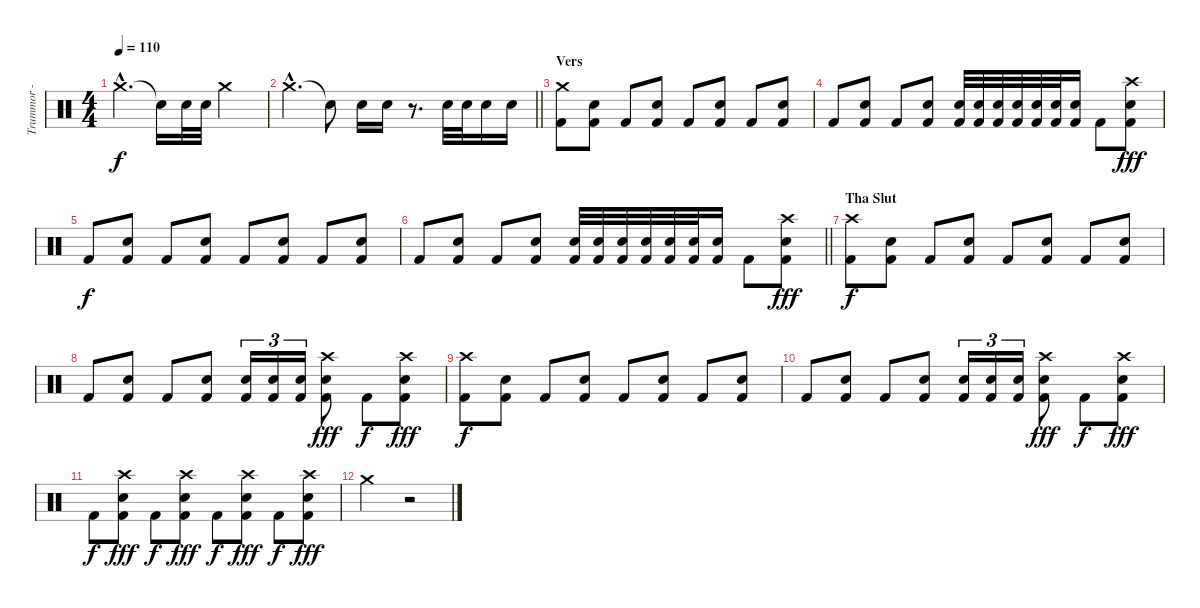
\track ("Trummor - Larzon" "Trummor - ") {instrument percussion}
\staff {score}
\articulation defaults
\ts (4 4)
\tempo 110
\clef neutral
\ks c "Crash medium (hit)"{hac}.4{d dy f} "Snare (hit) 2"{t}.16 "Snare (hit) 2".32 "Snare (hit) 2".32 "Crash medium (hit)".2
|
\barLineRight lightlight "Crash medium (hit)"{hac}.4{d} "Snare (hit) 2"{t}.8 "Snare (hit) 2".16 "Snare (hit) 2".16
r.8{d} "Snare (hit) 2".32 "Snare (hit) 2".32 "Snare (hit) 2".16 "Snare (hit) 2".16 |
\section ("" "Vers")
("Kick (hit) 2" "Crash medium (hit)").8 ("Kick (hit) 2" "Snare (hit) 2").8 "Kick (hit) 2".8 ("Kick (hit) 2" "Snare (hit) 2").8 "Kick (hit) 2".8 ("Kick (hit) 2" "Snare (hit) 2").8 "Kick (hit) 2".8 ("Kick (hit) 2" "Snare (hit) 2").8 |
"Kick (hit) 2".8 ("Kick (hit) 2" "Snare (hit) 2").8 "Kick (hit) 2".8 ("Kick (hit) 2" "Snare (hit) 2").8 ("Kick (hit) 2" "Snare (hit) 2").32 ("Kick (hit) 2" "Snare (hit) 2").32 ("Kick (hit) 2" "Snare (hit) 2").32 ("Kick (hit) 2" "Snare (hit) 2").32 ("Kick (hit) 2" "Snare (hit) 2").32 ("Kick (hit) 2" "Snare (hit) 2").32 ("Kick (hit) 2" "Snare (hit) 2").16 "Kick (hit) 2".8 ("Kick (hit) 2" "Crash high (hit)" "Snare (hit) 2").8{dy fff} |
"Kick (hit) 2".8{dy f} ("Kick (hit) 2" "Snare (hit) 2").8 "Kick (hit) 2".8 ("Kick (hit) 2" "Snare (hit) 2").8 "Kick (hit) 2".8 ("Kick (hit) 2" "Snare (hit) 2").8 "Kick (hit) 2".8 ("Kick (hit) 2" "Snare (hit) 2").8 |
\barLineRight lightlight "Kick (hit) 2".8
("Kick (hit) 2" "Snare (hit) 2").8 "Kick (hit) 2".8 ("Kick (hit) 2" "Snare (hit) 2").8 ("Kick (hit) 2" "Snare (hit) 2").32 ("Kick (hit) 2" "Snare (hit) 2").32 ("Kick (hit) 2" "Snare (hit) 2").32 ("Kick (hit) 2" "Snare (hit) 2").32 ("Kick (hit) 2" "Snare (hit) 2").32 ("Kick (hit) 2" "Snare (hit) 2").32 ("Kick (hit) 2" "Snare (hit) 2").16 "Kick (hit) 2".8 ("Kick (hit) 2" "Crash high (hit)" "Snare (hit) 2").8{dy fff} |
\section ("" "Tha Slut")
("Kick (hit) 2" "Crash high (hit)").8{dy f} ("Kick (hit) 2" "Snare (hit) 2").8 "Kick (hit) 2".8 ("Kick (hit) 2" "Snare (hit) 2").8 "Kick (hit) 2".8 ("Kick (hit) 2" "Snare (hit) 2").8 "Kick (hit) 2".8 ("Kick (hit) 2" "Snare (hit) 2").8 |
"Kick (hit) 2".8 ("Kick (hit) 2" "Snare (hit) 2").8 "Kick (hit) 2".8 ("Kick (hit) 2" "Snare (hit) 2").8 ("Kick (hit) 2" "Snare (hit) 2").16{tu (3 2)} ("Kick (hit) 2" "Snare (hit) 2").16{tu (3 2)} ("Kick (hit) 2" "Snare (hit) 2").16{tu (3 2)} ("Kick (hit) 2" "Crash high (hit)" "Snare (hit) 2").8{dy fff} "Kick (hit) 2".8{dy f} ("Kick (hit) 2" "Crash high (hit)" "Snare (hit) 2").8{dy fff} |
("Kick (hit) 2" "Crash high (hit)").8{dy f} ("Kick (hit) 2" "Snare (hit) 2").8 "Kick (hit) 2".8 ("Kick (hit) 2" "Snare (hit) 2").8 "Kick (hit) 2".8 ("Kick (hit) 2" "Snare (hit) 2").8 "Kick (hit) 2".8 ("Kick (hit) 2" "Snare (hit) 2").8 |
"Kick (hit) 2".8 ("Kick (hit) 2" "Snare (hit) 2").8 "Kick (hit) 2".8 ("Kick (hit) 2" "Snare (hit) 2").8 ("Kick (hit) 2" "Snare (hit) 2").16{tu (3 2)} ("Kick (hit) 2" "Snare (hit) 2").16{tu (3 2)} ("Kick (hit) 2" "Snare (hit) 2").16{tu (3 2)} ("Kick (hit) 2" "Crash high (hit)" "Snare (hit) 2").8{dy fff} "Kick (hit) 2".8{dy f} ("Kick (hit) 2" "Crash high (hit)" "Snare (hit) 2").8{dy fff} |
"Kick (hit) 2".8{dy f} ("Kick (hit) 2" "Snare (hit) 2" "Crash high (hit)").8{dy fff} "Kick (hit) 2".8{dy f} ("Kick (hit) 2" "Snare (hit) 2" "Crash high (hit)").8{dy fff} "Kick (hit) 2".8{dy f} ("Kick (hit) 2" "Snare (hit) 2" "Crash high (hit)").8{dy fff} "Kick (hit) 2".8{dy f} ("Kick (hit) 2" "Snare (hit) 2" "Crash high (hit)").8{dy fff} |
"Crash medium (hit)".2 r.2
